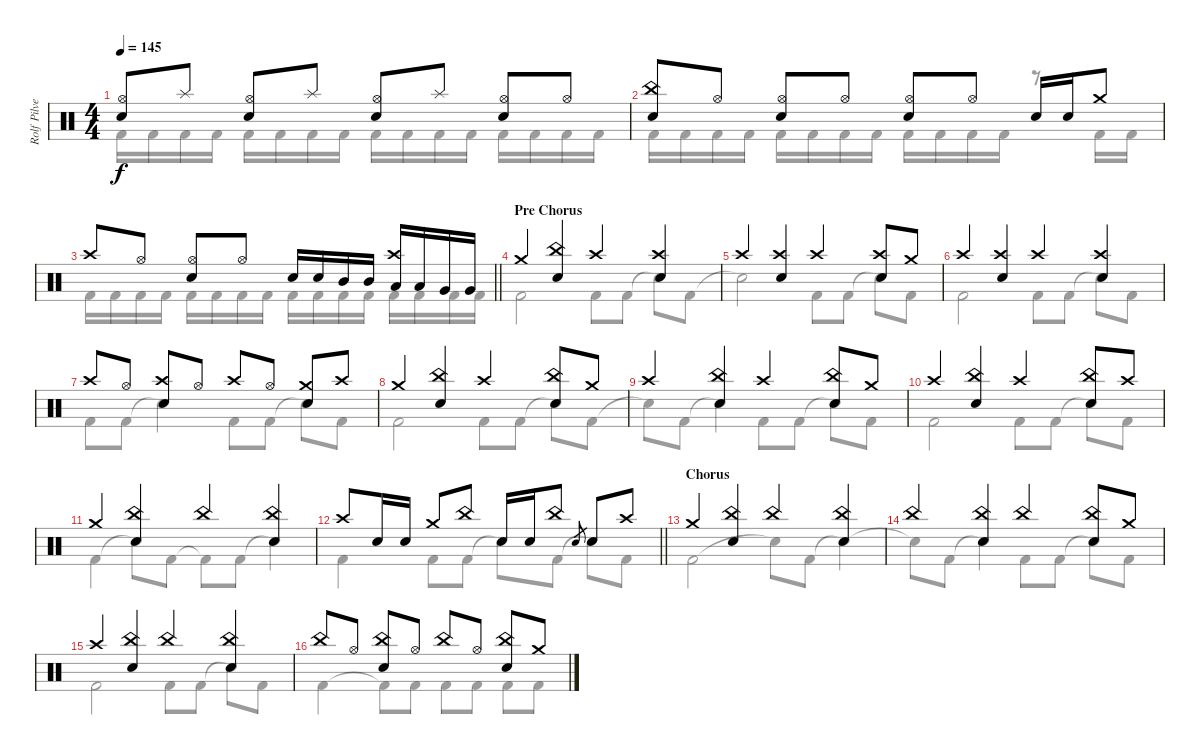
\track ("Rolf Pilve - drums" "Rolf Pilve") {instrument percussion}
\staff {score}
\articulation defaults
\voice
\ts (4 4)
\tempo 145
\clef neutral
\ks aminor
("Electric Snare (hit)" "Hi-Hat (open)").8{dy f} "Splash (hit)".8 ("Electric Snare (hit)" "Hi-Hat (open)").8 "Splash (hit)".8 ("Electric Snare (hit)" "Hi-Hat (open)").8 "Splash (hit)".8 ("Electric Snare (hit)" "Hi-Hat (open)").8 "Hi-Hat (open)".8 |
("Electric Snare (hit)" "China (hit)").8 "Hi-Hat (open)".8 ("Electric Snare (hit)" "Hi-Hat (open)").8 "Hi-Hat (open)".8 ("Electric Snare (hit)" "Hi-Hat (open)").8 "Hi-Hat (open)".8 "Electric Snare (hit)".16 "Electric Snare (hit)".16 "Crash medium (hit)".8 |
\barLineRight lightlight "Crash high (hit)".8 "Hi-Hat (open)".8
("Electric Snare (hit)" "Hi-Hat (open)").8 "Hi-Hat (open)".8 "Electric Snare (hit)".16 "Electric Snare (hit)".16 "Mid Tom (hit)".16 "Mid Tom (hit)".16 ("Crash high (hit)" "Low Tom (hit)").16 "Low Tom (hit)".16 "Very Low Tom (hit)".16 "Very Low Tom (hit)".16 |
\section ("" "Pre Chorus")
"Crash medium (hit)".4 ("China (hit)" "Electric Snare (hit)").4 "Crash high (hit)".4 ("Crash high (hit)" "Electric Snare (hit)").4 |
"Crash high (hit)".4 ("Crash high (hit)" "Electric Snare (hit)").4 "Crash high (hit)".4 ("Crash high (hit)" "Electric Snare (hit)").8 "Crash medium (hit)".8 |
"Crash high (hit)".4 ("Crash high (hit)" "Electric Snare (hit)").4 "Crash high (hit)".4 ("Crash high (hit)" "Electric Snare (hit)").4 |
"Crash high (hit)".8 "Hi-Hat (open)".8 ("Crash high (hit)" "Electric Snare (hit)").8 "Hi-Hat (open)".8 "Crash high (hit)".8 "Hi-Hat (open)".8 ("Crash medium (hit)" "Electric Snare (hit)").8 "Crash high (hit)".8 |
"Crash medium (hit)".4 ("China (hit)" "Electric Snare (hit)").4 "Crash high (hit)".4 ("China (hit)" "Electric Snare (hit)").8 "Crash medium (hit)".8 |
"Crash high (hit)".4 ("China (hit)" "Electric Snare (hit)").4 "Crash high (hit)".4 ("China (hit)" "Electric Snare (hit)").8 "Crash medium (hit)".8 |
"Crash high (hit)".4 ("China (hit)" "Electric Snare (hit)").4 "Crash high (hit)".4 ("China (hit)" "Electric Snare (hit)").8 "Crash high (hit)".8 |
"Crash medium (hit)".4 ("China (hit)" "Electric Snare (hit)").4 "China (hit)".4 ("China (hit)" "Electric Snare (hit)").4 |
\barLineRight lightlight "Crash high (hit)".8 "Electric Snare (hit)".16 "Electric Snare (hit)".16 "Crash medium (hit)".8 "China (hit)".8 "Electric Snare (hit)".16 "Electric Snare (hit)".16 "China (hit)".8 "Electric Snare (hit)".8{gr} "Electric Snare (hit)".8 "Crash high (hit)".8
|
\section ("" "Chorus")
"Crash medium (hit)".4 ("China (hit)" "Electric Snare (hit)").4 "China (hit)".4 ("China (hit)" "Electric Snare (hit)").4 |
"China (hit)".4 ("China (hit)" "Electric Snare (hit)").4 "China (hit)".4 ("China (hit)" "Electric Snare (hit)").8 "Crash medium (hit)".8 |
"Crash high (hit)".4 ("China (hit)" "Electric Snare (hit)").4 "China (hit)".4 ("China (hit)" "Electric Snare (hit)").4 |
"China (hit)".8 "Hi-Hat (open)".8 ("China (hit)" "Electric Snare (hit)").8 "Hi-Hat (open)".8 "China (hit)".8 "Hi-Hat (open)".8 ("China (hit)" "Electric Snare (hit)").8 "Crash medium (hit)".8
\voice
\clef neutral
\ottava regular
\simile none
\ks aminor "Kick (hit) 2".16{dy f} "Kick (hit) 2".16 "Kick (hit) 2".16 "Kick (hit) 2".16 "Kick (hit) 2".16 "Kick (hit) 2".16 "Kick (hit) 2".16 "Kick (hit) 2".16 "Kick (hit) 2".16 "Kick (hit) 2".16 "Kick (hit) 2".16 "Kick (hit) 2".16 "Kick (hit) 2".16 "Kick (hit) 2".16 "Kick (hit) 2".16 "Kick (hit) 2".16
|
"Kick (hit) 2".16 "Kick (hit) 2".16 "Kick (hit) 2".16 "Kick (hit) 2".16 "Kick (hit) 2".16 "Kick (hit) 2".16 "Kick (hit) 2".16 "Kick (hit) 2".16 "Kick (hit) 2".16 "Kick (hit) 2".16 "Kick (hit) 2".16 "Kick (hit) 2".16 r.8 "Kick (hit) 2".16 "Kick (hit) 2".16 |
\barLineRight lightlight "Kick (hit) 2".16 "Kick (hit) 2".16 "Kick (hit) 2".16 "Kick (hit) 2".16 "Kick (hit) 2".16 "Kick (hit) 2".16 "Kick (hit) 2".16 "Kick (hit) 2".16 "Kick (hit) 2".16 "Kick (hit) 2".16 "Kick (hit) 2".16 "Kick (hit) 2".16 "Kick (hit) 2".16 "Kick (hit) 2".16 "Kick (hit) 2".16 "Kick (hit) 2".16
|
"Kick (hit) 2".2 "Kick (hit) 2".8 "Kick (hit) 2".8 "Snare (hit)"{t}.8 "Kick (hit) 2".8 |
"Snare (hit)"{t}.2 "Kick (hit) 2".8 "Kick (hit) 2".8 "Snare (hit)"{t}.8 "Kick (hit) 2".8 |
"Kick (hit) 2".2 "Kick (hit) 2".8 "Kick (hit) 2".8 "Snare (hit)"{t}.8 "Kick (hit) 2".8 |
"Kick (hit) 2".8 "Kick (hit) 2".8 "Snare (hit)"{t}.4 "Kick (hit) 2".8 "Kick (hit) 2".8 "Snare (hit)"{t}.8 "Kick (hit) 2".8 |
"Kick (hit) 2".2 "Kick (hit) 2".8 "Kick (hit) 2".8 "Snare (hit)"{t}.8 "Kick (hit) 2".8 |
"Snare (hit)"{t}.8 "Kick (hit) 2".8 "Snare (hit)"{t}.4 "Kick (hit) 2".8 "Kick (hit) 2".8 "Snare (hit)"{t}.8 "Kick (hit) 2".8 |
"Kick (hit) 2".2 "Kick (hit) 2".8 "Kick (hit) 2".8 "Snare (hit)"{t}.8 "Kick (hit) 2".8 |
"Kick (hit) 2".4 "Snare (hit)"{t}.8 "Kick (hit) 2".8 "Kick (hit) 2"{t}.8 "Kick (hit) 2".8 "Snare (hit)"{t}.4 |
\barLineRight lightlight "Kick (hit) 2".4 "Kick (hit) 2".8 "Kick (hit) 2".8 "Snare (hit)"{t}.8 "Kick (hit) 2".8 "Snare (hit)"{t}.8 "Kick (hit) 2".8
|
"Kick (hit) 2".2 "Snare (hit)"{t}.8 "Kick (hit) 2".8 "Snare (hit)"{t}.4 |
"Snare (hit)"{t}.8 "Kick (hit) 2".8 "Snare (hit)"{t}.4 "Kick (hit) 2".8 "Kick (hit) 2".8 "Snare (hit)"{t}.8 "Kick (hit) 2".8 |
"Kick (hit) 2".2 "Kick (hit) 2".8 "Kick (hit) 2".8 "Snare (hit)"{t}.8 "Kick (hit) 2".8 |
"Kick (hit) 2".4 "Kick (hit) 2"{t}.8 "Kick (hit) 2".8 "Kick (hit) 2".8 "Kick (hit) 2".8 "Kick (hit) 2".8 "Kick (hit) 2".8
